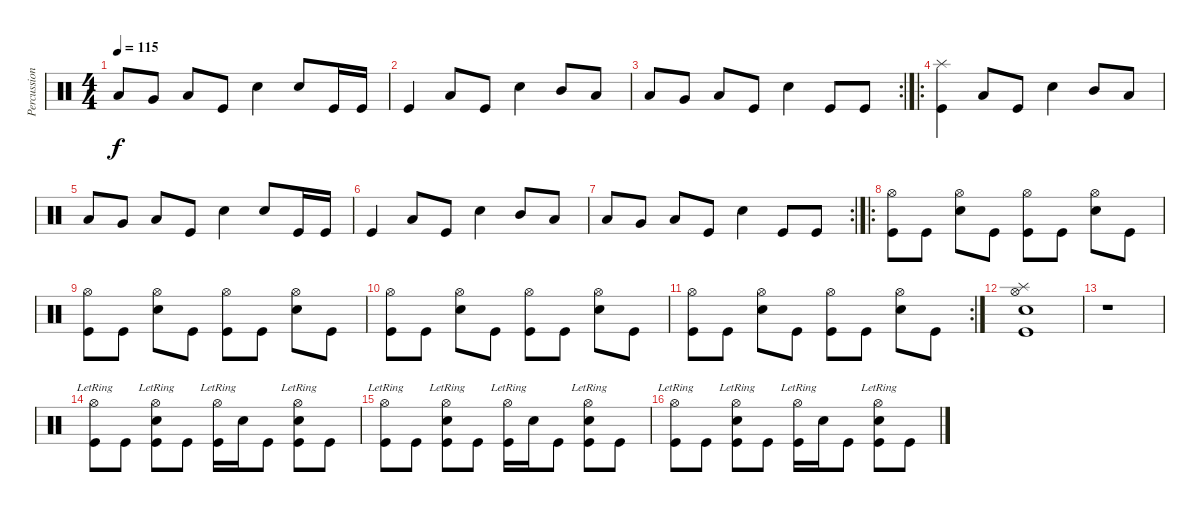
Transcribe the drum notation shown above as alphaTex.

\track ("Percussion" "Percussion") {instrument percussion}
\staff {score}
\articulation defaults
\ts (4 4)
\tempo 115
\clef neutral
\ks c "Low Tom (hit)".8{dy f} "Very Low Tom (hit)".8 "Low Floor Tom (hit)".8 "Kick (hit)".8 "Snare (hit) 2".4 "Snare (hit) 2".8 "Kick (hit)".16 "Kick (hit)".16
|
"Kick (hit)".4 "Low Floor Tom (hit)".8 "Kick (hit)".8 "Snare (hit) 2".4 "Mid Tom (hit)".8 "Low Tom (hit)".8 |
\rc 2 "Low Tom (hit)".8 "Very Low Tom (hit)".8 "Low Floor Tom (hit)".8 "Kick (hit)".8 "Snare (hit) 2".4 "Kick (hit)".8 "Kick (hit)".8
|
\ro
("Splash (hit)" "Kick (hit)").4 "Low Floor Tom (hit)".8 "Kick (hit)".8 "Snare (hit) 2".4 "Mid Tom (hit)".8 "Low Tom (hit)".8 |
"Low Tom (hit)".8 "Very Low Tom (hit)".8 "Low Floor Tom (hit)".8 "Kick (hit)".8 "Snare (hit) 2".4 "Snare (hit) 2".8 "Kick (hit)".16 "Kick (hit)".16 |
"Kick (hit)".4 "Low Floor Tom (hit)".8 "Kick (hit)".8 "Snare (hit) 2".4 "Mid Tom (hit)".8 "Low Tom (hit)".8 |
\rc 2 "Low Tom (hit)".8 "Very Low Tom (hit)".8 "Low Floor Tom (hit)".8 "Kick (hit)".8 "Snare (hit) 2".4 "Kick (hit)".8 "Kick (hit)".8
|
\ro
("Hi-Hat (open)" "Kick (hit)").8 "Kick (hit)".8 ("Hi-Hat (open)" "Snare (hit) 2").8 "Kick (hit)".8 ("Hi-Hat (open)" "Kick (hit)").8 "Kick (hit)".8 ("Hi-Hat (open)" "Snare (hit) 2").8 "Kick (hit)".8 |
("Hi-Hat (open)" "Kick (hit)").8 "Kick (hit)".8 ("Hi-Hat (open)" "Snare (hit) 2").8 "Kick (hit)".8 ("Hi-Hat (open)" "Kick (hit)").8 "Kick (hit)".8 ("Hi-Hat (open)" "Snare (hit) 2").8 "Kick (hit)".8 |
("Hi-Hat (open)" "Kick (hit)").8 "Kick (hit)".8 ("Hi-Hat (open)" "Snare (hit) 2").8 "Kick (hit)".8 ("Hi-Hat (open)" "Kick (hit)").8 "Kick (hit)".8 ("Hi-Hat (open)" "Snare (hit) 2").8 "Kick (hit)".8 |
\rc 2
("Hi-Hat (open)" "Kick (hit)").8 "Kick (hit)".8 ("Hi-Hat (open)" "Snare (hit) 2").8 "Kick (hit)".8 ("Hi-Hat (open)" "Kick (hit)").8 "Kick (hit)".8 ("Hi-Hat (open)" "Snare (hit) 2").8 "Kick (hit)".8 |
("Splash (hit)" "Hi-Hat (open)" "Snare (hit) 2" "Kick (hit)").1 |
r.1 |
("Hi-Hat (open)"{lr} "Kick (hit)").8 "Kick (hit)".8 ("Hi-Hat (open)"{lr} "Snare (hit) 2" "Kick (hit)").8 "Kick (hit)".8 ("Hi-Hat (open)"{lr} "Kick (hit)").16 "Snare (hit) 2".16 "Kick (hit)".8 ("Hi-Hat (open)"{lr} "Snare (hit) 2" "Kick (hit)").8 "Kick (hit)".8 |
("Hi-Hat (open)"{lr} "Kick (hit)").8 "Kick (hit)".8 ("Hi-Hat (open)"{lr} "Snare (hit) 2" "Kick (hit)").8 "Kick (hit)".8 ("Hi-Hat (open)"{lr} "Kick (hit)").16 "Snare (hit) 2".16 "Kick (hit)".8 ("Hi-Hat (open)"{lr} "Snare (hit) 2" "Kick (hit)").8 "Kick (hit)".8 |
("Hi-Hat (open)"{lr} "Kick (hit)").8 "Kick (hit)".8 ("Hi-Hat (open)"{lr} "Snare (hit) 2" "Kick (hit)").8 "Kick (hit)".8 ("Hi-Hat (open)"{lr} "Kick (hit)").16 "Snare (hit) 2".16 "Kick (hit)".8 ("Hi-Hat (open)"{lr} "Snare (hit) 2" "Kick (hit)").8 "Kick (hit)".8
